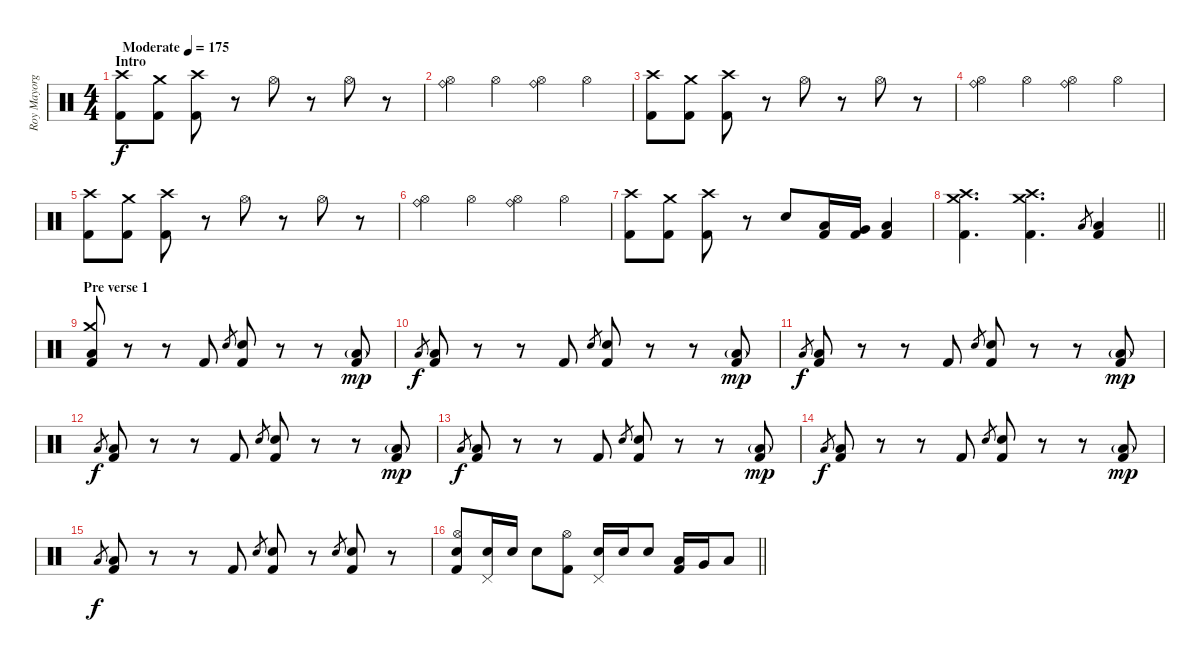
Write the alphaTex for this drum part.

\track ("Roy Mayorga" "Roy Mayorg") {instrument percussion}
\staff {score}
\articulation defaults
\ts (4 4)
\section ("" "Intro")
\tempo (175 "Moderate")
\clef neutral
\ks c
("Crash high (hit)" "Kick (hit) 2").8{dy f} ("Crash medium (hit)" "Kick (hit) 2").8 ("Crash high (hit)" "Kick (hit) 2").8 r.8 "Hi-Hat (open)".8 r.8 "Hi-Hat (open)".8 r.8 |
("Ride (bell)" "Hi-Hat (open)").4 "Hi-Hat (open)".4 ("Ride (bell)" "Hi-Hat (open)").4 "Hi-Hat (open)".4 |
("Crash high (hit)" "Kick (hit) 2").8 ("Crash medium (hit)" "Kick (hit) 2").8 ("Crash high (hit)" "Kick (hit) 2").8 r.8 "Hi-Hat (open)".8 r.8 "Hi-Hat (open)".8 r.8 |
("Ride (bell)" "Hi-Hat (open)").4 "Hi-Hat (open)".4 ("Ride (bell)" "Hi-Hat (open)").4 "Hi-Hat (open)".4 |
("Crash high (hit)" "Kick (hit) 2").8 ("Crash medium (hit)" "Kick (hit) 2").8 ("Crash high (hit)" "Kick (hit) 2").8 r.8 "Hi-Hat (open)".8 r.8 "Hi-Hat (open)".8 r.8 |
("Ride (bell)" "Hi-Hat (open)").4 "Hi-Hat (open)".4 ("Ride (bell)" "Hi-Hat (open)").4 "Hi-Hat (open)".4 |
("Crash high (hit)" "Kick (hit) 2").8 ("Crash medium (hit)" "Kick (hit) 2").8 ("Crash high (hit)" "Kick (hit) 2").8 r.8 "Electric Snare (hit)".8 ("Low Tom (hit)" "Kick (hit) 2").16 ("Very Low Tom (hit)" "Kick (hit) 2").16 ("Low Floor Tom (hit)" "Kick (hit) 2").4 |
\barLineRight lightlight
("Crash high (hit)" "Crash medium (hit)" "Kick (hit) 2").4{d} ("Crash high (hit)" "Crash medium (hit)" "Kick (hit) 2").4{d} "Low Floor Tom (hit)".8{gr} ("Low Floor Tom (hit)" "Kick (hit) 2").4 |
\section ("" "Pre verse 1")
("Crash medium (hit)" "Low Floor Tom (hit)" "Kick (hit) 2").8 r.8 r.8 "Kick (hit) 2".8 "Electric Snare (hit)".8{gr} ("Electric Snare (hit)" "Kick (hit) 2").8 r.8 r.8 ("Low Floor Tom (hit)"{g} "Kick (hit) 2").8{dy mp} |
"Low Floor Tom (hit)".8{gr dy f} ("Low Floor Tom (hit)" "Kick (hit) 2").8 r.8 r.8 "Kick (hit) 2".8 "Electric Snare (hit)".8{gr} ("Electric Snare (hit)" "Kick (hit) 2").8 r.8 r.8 ("Low Floor Tom (hit)"{g} "Kick (hit) 2").8{dy mp} |
"Low Floor Tom (hit)".8{gr dy f} ("Low Floor Tom (hit)" "Kick (hit) 2").8 r.8 r.8 "Kick (hit) 2".8 "Electric Snare (hit)".8{gr} ("Electric Snare (hit)" "Kick (hit) 2").8 r.8 r.8 ("Low Floor Tom (hit)"{g} "Kick (hit) 2").8{dy mp} |
"Low Floor Tom (hit)".8{gr dy f} ("Low Floor Tom (hit)" "Kick (hit) 2").8 r.8 r.8 "Kick (hit) 2".8 "Electric Snare (hit)".8{gr} ("Electric Snare (hit)" "Kick (hit) 2").8 r.8 r.8 ("Low Floor Tom (hit)"{g} "Kick (hit) 2").8{dy mp} |
"Low Floor Tom (hit)".8{gr dy f} ("Low Floor Tom (hit)" "Kick (hit) 2").8 r.8 r.8 "Kick (hit) 2".8 "Electric Snare (hit)".8{gr} ("Electric Snare (hit)" "Kick (hit) 2").8 r.8 r.8 ("Low Floor Tom (hit)"{g} "Kick (hit) 2").8{dy mp} |
"Low Floor Tom (hit)".8{gr dy f} ("Low Floor Tom (hit)" "Kick (hit) 2").8 r.8 r.8 "Kick (hit) 2".8 "Electric Snare (hit)".8{gr} ("Electric Snare (hit)" "Kick (hit) 2").8 r.8 r.8 ("Low Floor Tom (hit)"{g} "Kick (hit) 2").8{dy mp} |
"Low Floor Tom (hit)".8{gr dy f} ("Low Floor Tom (hit)" "Kick (hit) 2").8 r.8 r.8 "Kick (hit) 2".8 "Electric Snare (hit)".8{gr} ("Electric Snare (hit)" "Kick (hit) 2").8 r.8 "Electric Snare (hit)".8{gr} ("Electric Snare (hit)" "Kick (hit) 2").8 r.8 |
\barLineRight lightlight
("Hi-Hat (open)" "Electric Snare (hit)" "Kick (hit) 2").8 ("Pedal Hi-Hat (hit)" "Electric Snare (hit)").16 "Electric Snare (hit)".16 "Electric Snare (hit)".8 ("Hi-Hat (open)" "Kick (hit) 2").8 ("Pedal Hi-Hat (hit)" "Electric Snare (hit)").16 "Electric Snare (hit)".16 "Electric Snare (hit)".8 ("Low Tom (hit)" "Kick (hit) 2").16 "Very Low Tom (hit)".16 "Low Floor Tom (hit)".8
